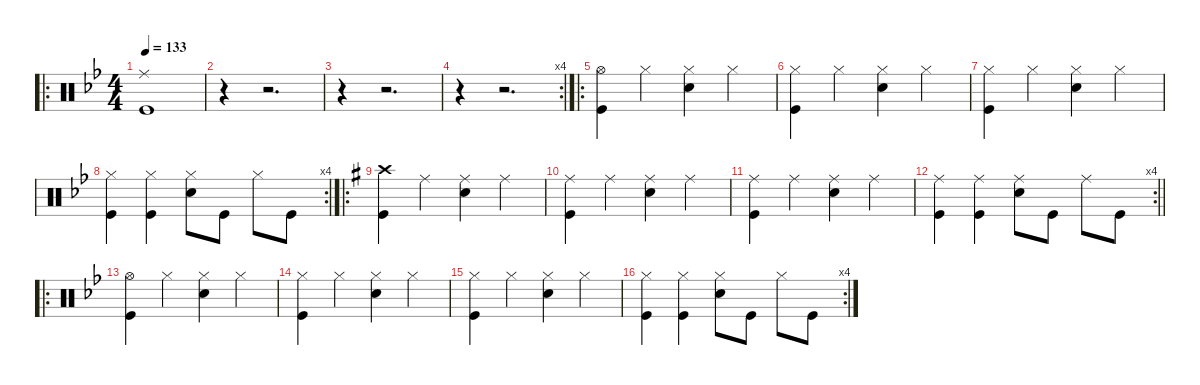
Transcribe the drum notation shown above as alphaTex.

\defaultSystemsLayout 4
\hideDynamics
\bracketExtendMode nobrackets
\singleTrackTrackNamePolicy hidden
\multiTrackTrackNamePolicy hidden
\firstSystemTrackNameMode fullname
\firstSystemTrackNameOrientation horizontal
\otherSystemsTrackNameOrientation horizontal
\track ("Drums" "drm.") {instrument percussion}
\staff {score}
\articulation defaults
\ro
\ts (4 4)
\beaming (8 2 2 2 2)
\tempo 133
\clef neutral
\ks gminor
("Ride (middle)"{acc forcenatural} "Kick (hit)"{acc forcenatural}).1{dy fff beam Down} |
r.4{beam Down} r.2{d beam Down} |
r.4{beam Down} r.2{d beam Down} |
\rc 4
r.4{beam Down} r.2{d beam Down} |
\ro
("Hi-Hat (open)"{acc forcenatural} "Kick (hit)"{acc forcenatural}).4{dy f beam Down} "Hi-Hat (closed)"{acc forcenatural}.4{beam Down} ("Hi-Hat (closed)"{acc forcenatural} "Snare (hit) 2"{acc forcenatural}).4{beam Down} "Hi-Hat (closed)"{acc forcenatural}.4{beam Down} |
("Hi-Hat (closed)"{acc forcenatural} "Kick (hit)"{acc forcenatural}).4{beam Down} "Hi-Hat (closed)"{acc forcenatural}.4{beam Down} ("Hi-Hat (closed)"{acc forcenatural} "Snare (hit) 2"{acc forcenatural}).4{beam Down} "Hi-Hat (closed)"{acc forcenatural}.4{beam Down} |
("Hi-Hat (closed)"{acc forcenatural} "Kick (hit)"{acc forcenatural}).4{beam Down} "Hi-Hat (closed)"{acc forcenatural}.4{beam Down} ("Hi-Hat (closed)"{acc forcenatural} "Snare (hit) 2"{acc forcenatural}).4{beam Down} "Hi-Hat (closed)"{acc forcenatural}.4{beam Down} |
\rc 4
("Hi-Hat (closed)"{acc forcenatural} "Kick (hit)"{acc forcenatural}).4{beam Down} ("Hi-Hat (closed)"{acc forcenatural} "Kick (hit)"{acc forcenatural}).4{beam Down} ("Hi-Hat (closed)"{acc forcenatural} "Snare (hit) 2"{acc forcenatural}).8{beam Down} "Kick (hit)"{acc forcenatural}.8{beam Down} "Hi-Hat (closed)"{acc forcenatural}.8{beam Down} "Kick (hit)"{acc forcenatural}.8{beam Down} |
\ro
\ks eminor
("Crash high (hit)"{acc forcenatural} "Kick (hit)"{acc forcenatural}).4{beam Down} "Ride (middle)"{acc forcenatural}.4{beam Down} ("Ride (middle)"{acc forcenatural} "Snare (hit) 2"{acc forcenatural}).4{beam Down} "Ride (middle)"{acc forcenatural}.4{beam Down} |
("Ride (middle)"{acc forcenatural} "Kick (hit)"{acc forcenatural}).4{beam Down} "Ride (middle)"{acc forcenatural}.4{beam Down} ("Ride (middle)"{acc forcenatural} "Snare (hit) 2"{acc forcenatural}).4{beam Down} "Ride (middle)"{acc forcenatural}.4{beam Down} |
("Ride (middle)"{acc forcenatural} "Kick (hit)"{acc forcenatural}).4{beam Down} "Ride (middle)"{acc forcenatural}.4{beam Down} ("Ride (middle)"{acc forcenatural} "Snare (hit) 2"{acc forcenatural}).4{beam Down} "Ride (middle)"{acc forcenatural}.4{beam Down} |
\rc 4
\barLineRight lightlight
("Ride (middle)"{acc forcenatural} "Kick (hit)"{acc forcenatural}).4{beam Down} ("Ride (middle)"{acc forcenatural} "Kick (hit)"{acc forcenatural}).4{beam Down} ("Ride (middle)"{acc forcenatural} "Snare (hit) 2"{acc forcenatural}).8{beam Down} "Kick (hit)"{acc forcenatural}.8{beam Down} "Ride (middle)"{acc forcenatural}.8{beam Down} "Kick (hit)"{acc forcenatural}.8{beam Down} |
\ro
\ks gminor
("Hi-Hat (open)"{acc forcenatural} "Kick (hit)"{acc forcenatural}).4{beam Down} "Hi-Hat (closed)"{acc forcenatural}.4{beam Down} ("Hi-Hat (closed)"{acc forcenatural} "Snare (hit) 2"{acc forcenatural}).4{beam Down} "Hi-Hat (closed)"{acc forcenatural}.4{beam Down} |
("Hi-Hat (closed)"{acc forcenatural} "Kick (hit)"{acc forcenatural}).4{beam Down} "Hi-Hat (closed)"{acc forcenatural}.4{beam Down} ("Hi-Hat (closed)"{acc forcenatural} "Snare (hit) 2"{acc forcenatural}).4{beam Down} "Hi-Hat (closed)"{acc forcenatural}.4{beam Down} |
("Hi-Hat (closed)"{acc forcenatural} "Kick (hit)"{acc forcenatural}).4{beam Down} "Hi-Hat (closed)"{acc forcenatural}.4{beam Down} ("Hi-Hat (closed)"{acc forcenatural} "Snare (hit) 2"{acc forcenatural}).4{beam Down} "Hi-Hat (closed)"{acc forcenatural}.4{beam Down} |
\rc 4
("Hi-Hat (closed)"{acc forcenatural} "Kick (hit)"{acc forcenatural}).4{beam Down} ("Hi-Hat (closed)"{acc forcenatural} "Kick (hit)"{acc forcenatural}).4{beam Down} ("Hi-Hat (closed)"{acc forcenatural} "Snare (hit) 2"{acc forcenatural}).8{beam Down} "Kick (hit)"{acc forcenatural}.8{beam Down} "Hi-Hat (closed)"{acc forcenatural}.8{beam Down} "Kick (hit)"{acc forcenatural}.8{beam Down}
